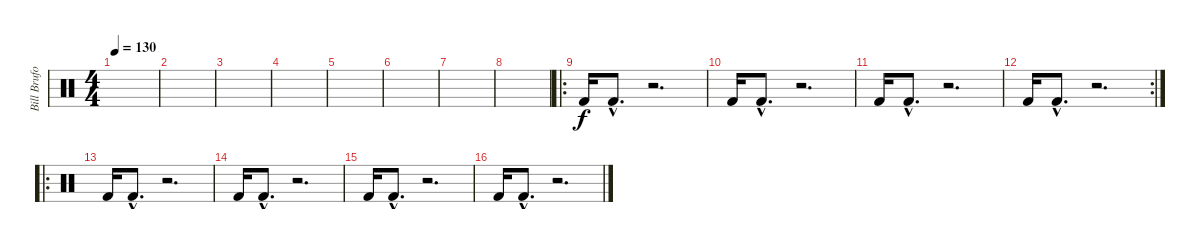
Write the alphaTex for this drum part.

\track ("Bill Bruford (drums)" "Bill Brufo") {instrument percussion}
\staff {score}
\articulation defaults
\ts (4 4)
\tempo 130
\tempo 120
\tempo 130
\clef neutral
\ks c
|
|
|
|
|
|
|
|
\ro "Kick (hit) 2".16 "Kick (hit) 2"{hac}.8{d}
r.2{d} |
"Kick (hit) 2".16 "Kick (hit) 2"{hac}.8{d} r.2{d} |
"Kick (hit) 2".16 "Kick (hit) 2"{hac}.8{d} r.2{d} |
\rc 2 "Kick (hit) 2".16 "Kick (hit) 2"{hac}.8{d}
r.2{d} |
\ro "Kick (hit) 2".16 "Kick (hit) 2"{hac}.8{d}
r.2{d} |
"Kick (hit) 2".16 "Kick (hit) 2"{hac}.8{d} r.2{d} |
"Kick (hit) 2".16 "Kick (hit) 2"{hac}.8{d} r.2{d} |
"Kick (hit) 2".16 "Kick (hit) 2"{hac}.8{d} r.2{d}
